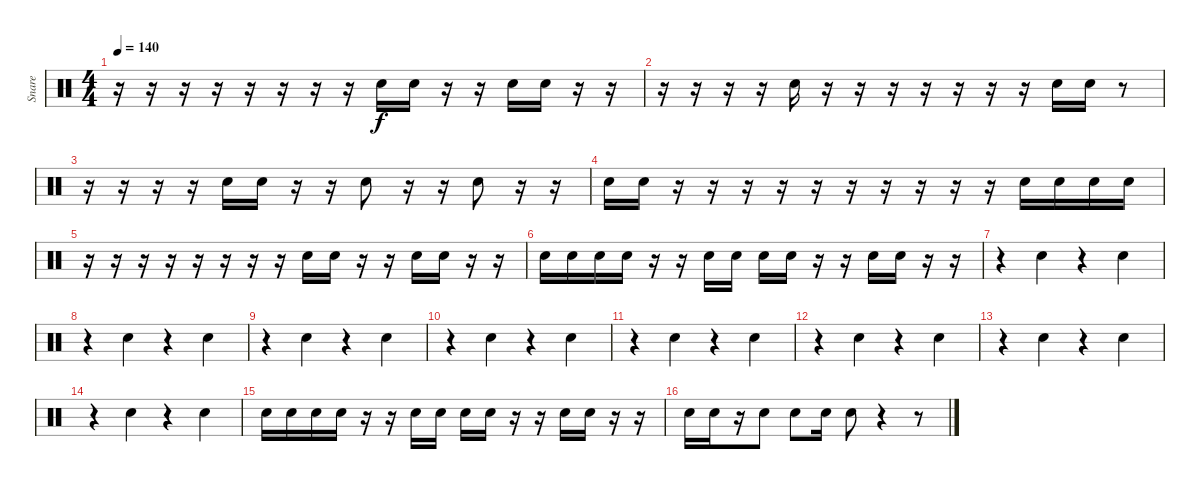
\track ("Snare" "Snare") {instrument percussion}
\staff {score}
\articulation defaults
\ts (4 4)
\tempo 140
\clef neutral
\ks c
r.16{dy f} r.16 r.16 r.16 r.16 r.16 r.16 r.16 "Snare (hit) 2".16 "Snare (hit) 2".16 r.16 r.16 "Snare (hit) 2".16 "Snare (hit) 2".16 r.16 r.16 |
r.16 r.16 r.16 r.16 "Snare (hit) 2".16 r.16 r.16 r.16 r.16 r.16 r.16 r.16 "Snare (hit) 2".16 "Snare (hit) 2".16 r.8 |
r.16 r.16 r.16 r.16 "Snare (hit) 2".16 "Snare (hit) 2".16 r.16 r.16 "Snare (hit) 2".8 r.16 r.16 "Snare (hit) 2".8 r.16 r.16 |
"Snare (hit) 2".16 "Snare (hit) 2".16 r.16 r.16 r.16 r.16 r.16 r.16 r.16 r.16 r.16 r.16 "Snare (hit) 2".16 "Snare (hit) 2".16 "Snare (hit) 2".16 "Snare (hit) 2".16 |
r.16 r.16 r.16 r.16 r.16 r.16 r.16 r.16 "Snare (hit) 2".16 "Snare (hit) 2".16 r.16 r.16 "Snare (hit) 2".16 "Snare (hit) 2".16 r.16 r.16 |
"Snare (hit) 2".16 "Snare (hit) 2".16 "Snare (hit) 2".16 "Snare (hit) 2".16 r.16 r.16 "Snare (hit) 2".16 "Snare (hit) 2".16 "Snare (hit) 2".16 "Snare (hit) 2".16 r.16 r.16 "Snare (hit) 2".16 "Snare (hit) 2".16 r.16 r.16 |
r.4 "Snare (hit) 2".4 r.4 "Snare (hit) 2".4 |
r.4 "Snare (hit) 2".4 r.4 "Snare (hit) 2".4 |
r.4 "Snare (hit) 2".4 r.4 "Snare (hit) 2".4 |
r.4 "Snare (hit) 2".4 r.4 "Snare (hit) 2".4 |
r.4 "Snare (hit) 2".4 r.4 "Snare (hit) 2".4 |
r.4 "Snare (hit) 2".4 r.4 "Snare (hit) 2".4 |
r.4 "Snare (hit) 2".4 r.4 "Snare (hit) 2".4 |
r.4 "Snare (hit) 2".4 r.4 "Snare (hit) 2".4 |
"Snare (hit) 2".16 "Snare (hit) 2".16 "Snare (hit) 2".16 "Snare (hit) 2".16 r.16 r.16 "Snare (hit) 2".16 "Snare (hit) 2".16 "Snare (hit) 2".16 "Snare (hit) 2".16 r.16 r.16 "Snare (hit) 2".16 "Snare (hit) 2".16 r.16 r.16 |
"Snare (hit) 2".16 "Snare (hit) 2".16 r.16 "Snare (hit) 2".8 "Snare (hit) 2".8 "Snare (hit) 2".16 "Snare (hit) 2".8 r.4 r.8
